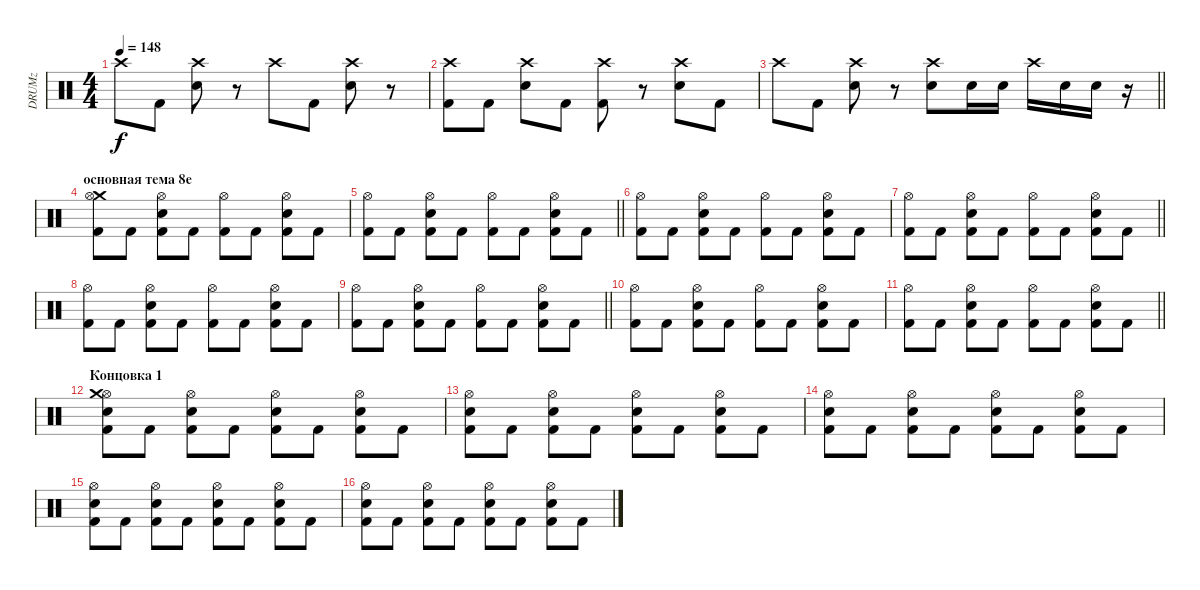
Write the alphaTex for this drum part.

\track ("DRUMz" "DRUMz") {instrument percussion}
\staff {score}
\articulation defaults
\ts (4 4)
\tempo 148
\clef neutral
\ks c "Crash high (hit)".8{dy f} "Kick (hit) 2".8
("Crash high (hit)" "Snare (hit) 2").8 r.8 "Crash high (hit)".8 "Kick (hit) 2".8 ("Crash high (hit)" "Snare (hit) 2").8 r.8 |
("Crash high (hit)" "Kick (hit) 2").8 "Kick (hit) 2".8 ("Crash high (hit)" "Snare (hit) 2").8 "Kick (hit) 2".8 ("Crash high (hit)" "Kick (hit) 2").8 r.8 ("Crash high (hit)" "Snare (hit) 2").8 "Kick (hit) 2".8 |
\barLineRight lightlight "Crash high (hit)".8 "Kick (hit) 2".8
("Crash high (hit)" "Snare (hit) 2").8 r.8 ("Snare (hit) 2" "Crash high (hit)").8 "Snare (hit) 2".16 "Snare (hit) 2".16 "Crash high (hit)".16 "Snare (hit) 2".16 "Snare (hit) 2".16 r.16 |
\section ("" "основная тема 8е")
("Crash medium (hit)" "Hi-Hat (open)" "Kick (hit) 2").8 "Kick (hit) 2".8 ("Kick (hit) 2" "Hi-Hat (open)" "Snare (hit) 2").8 "Kick (hit) 2".8 ("Hi-Hat (open)" "Kick (hit) 2").8 "Kick (hit) 2".8 ("Kick (hit) 2" "Hi-Hat (open)" "Snare (hit) 2").8 "Kick (hit) 2".8 |
\barLineRight lightlight
("Kick (hit) 2" "Hi-Hat (open)").8 "Kick (hit) 2".8 ("Kick (hit) 2" "Hi-Hat (open)" "Snare (hit) 2").8 "Kick (hit) 2".8 ("Kick (hit) 2" "Hi-Hat (open)").8 "Kick (hit) 2".8 ("Kick (hit) 2" "Hi-Hat (open)" "Snare (hit) 2").8 "Kick (hit) 2".8 |
("Hi-Hat (open)" "Kick (hit) 2").8 "Kick (hit) 2".8 ("Kick (hit) 2" "Hi-Hat (open)" "Snare (hit) 2").8 "Kick (hit) 2".8 ("Hi-Hat (open)" "Kick (hit) 2").8 "Kick (hit) 2".8 ("Kick (hit) 2" "Hi-Hat (open)" "Snare (hit) 2").8 "Kick (hit) 2".8 |
\barLineRight lightlight
("Kick (hit) 2" "Hi-Hat (open)").8 "Kick (hit) 2".8 ("Kick (hit) 2" "Hi-Hat (open)" "Snare (hit) 2").8 "Kick (hit) 2".8 ("Kick (hit) 2" "Hi-Hat (open)").8 "Kick (hit) 2".8 ("Kick (hit) 2" "Hi-Hat (open)" "Snare (hit) 2").8 "Kick (hit) 2".8 |
("Hi-Hat (open)" "Kick (hit) 2").8 "Kick (hit) 2".8 ("Kick (hit) 2" "Hi-Hat (open)" "Snare (hit) 2").8 "Kick (hit) 2".8 ("Hi-Hat (open)" "Kick (hit) 2").8 "Kick (hit) 2".8 ("Kick (hit) 2" "Hi-Hat (open)" "Snare (hit) 2").8 "Kick (hit) 2".8 |
\barLineRight lightlight
("Kick (hit) 2" "Hi-Hat (open)").8 "Kick (hit) 2".8 ("Kick (hit) 2" "Hi-Hat (open)" "Snare (hit) 2").8 "Kick (hit) 2".8 ("Kick (hit) 2" "Hi-Hat (open)").8 "Kick (hit) 2".8 ("Kick (hit) 2" "Hi-Hat (open)" "Snare (hit) 2").8 "Kick (hit) 2".8 |
("Hi-Hat (open)" "Kick (hit) 2").8 "Kick (hit) 2".8 ("Kick (hit) 2" "Hi-Hat (open)" "Snare (hit) 2").8 "Kick (hit) 2".8 ("Hi-Hat (open)" "Kick (hit) 2").8 "Kick (hit) 2".8 ("Kick (hit) 2" "Hi-Hat (open)" "Snare (hit) 2").8 "Kick (hit) 2".8 |
\barLineRight lightlight
("Kick (hit) 2" "Hi-Hat (open)").8 "Kick (hit) 2".8 ("Kick (hit) 2" "Hi-Hat (open)" "Snare (hit) 2").8 "Kick (hit) 2".8 ("Kick (hit) 2" "Hi-Hat (open)").8 "Kick (hit) 2".8 ("Kick (hit) 2" "Hi-Hat (open)" "Snare (hit) 2").8 "Kick (hit) 2".8 |
\section ("" "Концовка 1")
("Snare (hit) 2" "Hi-Hat (open)" "Kick (hit) 2" "Crash medium (hit)").8 "Kick (hit) 2".8 ("Kick (hit) 2" "Snare (hit) 2" "Hi-Hat (open)").8 "Kick (hit) 2".8 ("Kick (hit) 2" "Snare (hit) 2" "Hi-Hat (open)").8 "Kick (hit) 2".8 ("Snare (hit) 2" "Kick (hit) 2" "Hi-Hat (open)").8 "Kick (hit) 2".8 |
("Kick (hit) 2" "Snare (hit) 2" "Hi-Hat (open)").8 "Kick (hit) 2".8 ("Snare (hit) 2" "Kick (hit) 2" "Hi-Hat (open)").8 "Kick (hit) 2".8 ("Snare (hit) 2" "Kick (hit) 2" "Hi-Hat (open)").8 "Kick (hit) 2".8 ("Kick (hit) 2" "Hi-Hat (open)" "Snare (hit) 2").8 "Kick (hit) 2".8 |
("Snare (hit) 2" "Hi-Hat (open)" "Kick (hit) 2").8 "Kick (hit) 2".8 ("Kick (hit) 2" "Snare (hit) 2" "Hi-Hat (open)").8 "Kick (hit) 2".8 ("Kick (hit) 2" "Snare (hit) 2" "Hi-Hat (open)").8 "Kick (hit) 2".8 ("Snare (hit) 2" "Kick (hit) 2" "Hi-Hat (open)").8 "Kick (hit) 2".8 |
("Kick (hit) 2" "Snare (hit) 2" "Hi-Hat (open)").8 "Kick (hit) 2".8 ("Snare (hit) 2" "Kick (hit) 2" "Hi-Hat (open)").8 "Kick (hit) 2".8 ("Snare (hit) 2" "Kick (hit) 2" "Hi-Hat (open)").8 "Kick (hit) 2".8 ("Kick (hit) 2" "Hi-Hat (open)" "Snare (hit) 2").8 "Kick (hit) 2".8 |
("Snare (hit) 2" "Hi-Hat (open)" "Kick (hit) 2").8 "Kick (hit) 2".8 ("Kick (hit) 2" "Snare (hit) 2" "Hi-Hat (open)").8 "Kick (hit) 2".8 ("Kick (hit) 2" "Snare (hit) 2" "Hi-Hat (open)").8 "Kick (hit) 2".8 ("Snare (hit) 2" "Kick (hit) 2" "Hi-Hat (open)").8 "Kick (hit) 2".8
